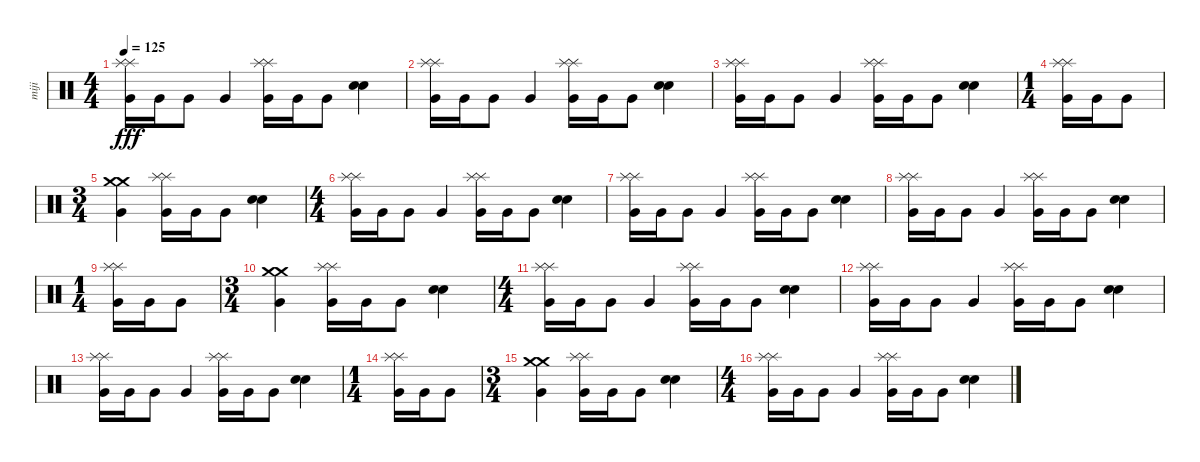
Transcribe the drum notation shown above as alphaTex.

\track ("miji" "miji") {instrument percussion}
\staff {score}
\articulation defaults
\ts (4 4)
\tempo 125
\clef neutral
\ks c
("Very Low Tom (hit)" "Splash (hit)" "Splash (hit)").16{dy fff} "Very Low Tom (hit)".16 "Very Low Tom (hit)".8 "Very Low Tom (hit)".4 ("Very Low Tom (hit)" "Splash (hit)" "Splash (hit)").16 "Very Low Tom (hit)".16 "Very Low Tom (hit)".8 ("Electric Snare (hit)" "Electric Snare (hit)").4 |
("Very Low Tom (hit)" "Splash (hit)" "Splash (hit)").16 "Very Low Tom (hit)".16 "Very Low Tom (hit)".8 "Very Low Tom (hit)".4 ("Very Low Tom (hit)" "Splash (hit)" "Splash (hit)").16 "Very Low Tom (hit)".16 "Very Low Tom (hit)".8 ("Electric Snare (hit)" "Electric Snare (hit)").4 |
("Very Low Tom (hit)" "Splash (hit)" "Splash (hit)").16 "Very Low Tom (hit)".16 "Very Low Tom (hit)".8 "Very Low Tom (hit)".4 ("Very Low Tom (hit)" "Splash (hit)" "Splash (hit)").16 "Very Low Tom (hit)".16 "Very Low Tom (hit)".8 ("Electric Snare (hit)" "Electric Snare (hit)").4 |
\ts (1 4)
("Very Low Tom (hit)" "Splash (hit)" "Splash (hit)").16 "Very Low Tom (hit)".16 "Very Low Tom (hit)".8 |
\ts (3 4)
("Very Low Tom (hit)" "Crash medium (hit)" "Crash medium (hit)").4 ("Very Low Tom (hit)" "Splash (hit)" "Splash (hit)").16 "Very Low Tom (hit)".16 "Very Low Tom (hit)".8 ("Electric Snare (hit)" "Electric Snare (hit)").4 |
\ts (4 4)
("Very Low Tom (hit)" "Splash (hit)" "Splash (hit)").16 "Very Low Tom (hit)".16 "Very Low Tom (hit)".8 "Very Low Tom (hit)".4 ("Very Low Tom (hit)" "Splash (hit)" "Splash (hit)").16 "Very Low Tom (hit)".16 "Very Low Tom (hit)".8 ("Electric Snare (hit)" "Electric Snare (hit)").4 |
("Very Low Tom (hit)" "Splash (hit)" "Splash (hit)").16 "Very Low Tom (hit)".16 "Very Low Tom (hit)".8 "Very Low Tom (hit)".4 ("Very Low Tom (hit)" "Splash (hit)" "Splash (hit)").16 "Very Low Tom (hit)".16 "Very Low Tom (hit)".8 ("Electric Snare (hit)" "Electric Snare (hit)").4 |
("Very Low Tom (hit)" "Splash (hit)" "Splash (hit)").16 "Very Low Tom (hit)".16 "Very Low Tom (hit)".8 "Very Low Tom (hit)".4 ("Very Low Tom (hit)" "Splash (hit)" "Splash (hit)").16 "Very Low Tom (hit)".16 "Very Low Tom (hit)".8 ("Electric Snare (hit)" "Electric Snare (hit)").4 |
\ts (1 4)
("Very Low Tom (hit)" "Splash (hit)" "Splash (hit)").16 "Very Low Tom (hit)".16 "Very Low Tom (hit)".8 |
\ts (3 4)
("Very Low Tom (hit)" "Crash medium (hit)" "Crash medium (hit)").4 ("Very Low Tom (hit)" "Splash (hit)" "Splash (hit)").16 "Very Low Tom (hit)".16 "Very Low Tom (hit)".8 ("Electric Snare (hit)" "Electric Snare (hit)").4 |
\ts (4 4)
("Very Low Tom (hit)" "Splash (hit)" "Splash (hit)").16 "Very Low Tom (hit)".16 "Very Low Tom (hit)".8 "Very Low Tom (hit)".4 ("Very Low Tom (hit)" "Splash (hit)" "Splash (hit)").16 "Very Low Tom (hit)".16 "Very Low Tom (hit)".8 ("Electric Snare (hit)" "Electric Snare (hit)").4 |
("Very Low Tom (hit)" "Splash (hit)" "Splash (hit)").16 "Very Low Tom (hit)".16 "Very Low Tom (hit)".8 "Very Low Tom (hit)".4 ("Very Low Tom (hit)" "Splash (hit)" "Splash (hit)").16 "Very Low Tom (hit)".16 "Very Low Tom (hit)".8 ("Electric Snare (hit)" "Electric Snare (hit)").4 |
("Very Low Tom (hit)" "Splash (hit)" "Splash (hit)").16 "Very Low Tom (hit)".16 "Very Low Tom (hit)".8 "Very Low Tom (hit)".4 ("Very Low Tom (hit)" "Splash (hit)" "Splash (hit)").16 "Very Low Tom (hit)".16 "Very Low Tom (hit)".8 ("Electric Snare (hit)" "Electric Snare (hit)").4 |
\ts (1 4)
("Very Low Tom (hit)" "Splash (hit)" "Splash (hit)").16 "Very Low Tom (hit)".16 "Very Low Tom (hit)".8 |
\ts (3 4)
("Very Low Tom (hit)" "Crash medium (hit)" "Crash medium (hit)").4 ("Very Low Tom (hit)" "Splash (hit)" "Splash (hit)").16 "Very Low Tom (hit)".16 "Very Low Tom (hit)".8 ("Electric Snare (hit)" "Electric Snare (hit)").4 |
\ts (4 4)
("Very Low Tom (hit)" "Splash (hit)" "Splash (hit)").16 "Very Low Tom (hit)".16 "Very Low Tom (hit)".8 "Very Low Tom (hit)".4 ("Very Low Tom (hit)" "Splash (hit)" "Splash (hit)").16 "Very Low Tom (hit)".16 "Very Low Tom (hit)".8 ("Electric Snare (hit)" "Electric Snare (hit)").4
